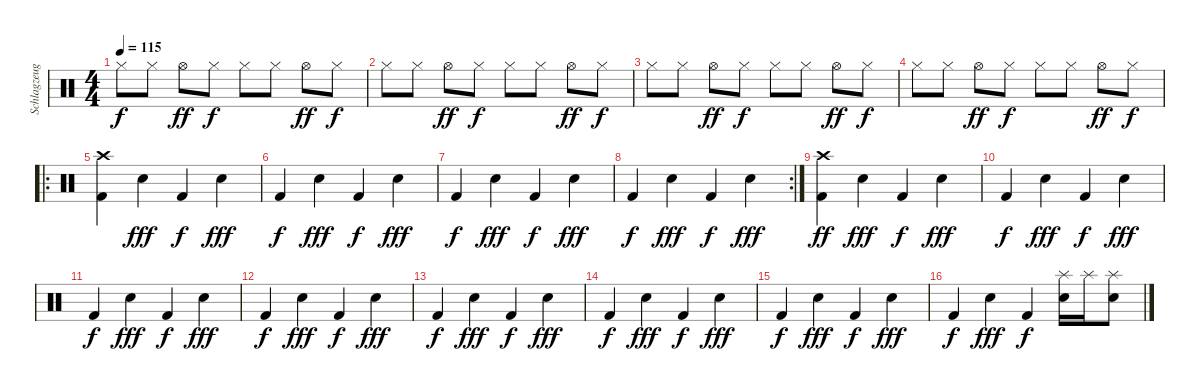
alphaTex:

\track ("Schlagzeug" "Schlagzeug") {instrument percussion}
\staff {score}
\articulation defaults
\ts (4 4)
\tempo 115
\clef neutral
\ks c "Hi-Hat (closed)".8{dy f} "Hi-Hat (closed)".8 "Hi-Hat (open)".8{dy ff} "Hi-Hat (closed)".8{dy f} "Hi-Hat (closed)".8 "Hi-Hat (closed)".8 "Hi-Hat (open)".8{dy ff} "Hi-Hat (closed)".8{dy f}
|
"Hi-Hat (closed)".8 "Hi-Hat (closed)".8 "Hi-Hat (open)".8{dy ff} "Hi-Hat (closed)".8{dy f} "Hi-Hat (closed)".8 "Hi-Hat (closed)".8 "Hi-Hat (open)".8{dy ff} "Hi-Hat (closed)".8{dy f} |
"Hi-Hat (closed)".8 "Hi-Hat (closed)".8 "Hi-Hat (open)".8{dy ff} "Hi-Hat (closed)".8{dy f} "Hi-Hat (closed)".8 "Hi-Hat (closed)".8 "Hi-Hat (open)".8{dy ff} "Hi-Hat (closed)".8{dy f} |
"Hi-Hat (closed)".8 "Hi-Hat (closed)".8 "Hi-Hat (open)".8{dy ff} "Hi-Hat (closed)".8{dy f} "Hi-Hat (closed)".8 "Hi-Hat (closed)".8 "Hi-Hat (open)".8{dy ff} "Hi-Hat (closed)".8{dy f} |
\ro
("Crash high (hit)" "Kick (hit) 2").4 "Electric Snare (hit)".4{dy fff} "Kick (hit) 2".4{dy f} "Electric Snare (hit)".4{dy fff} |
"Kick (hit) 2".4{dy f} "Electric Snare (hit)".4{dy fff} "Kick (hit) 2".4{dy f} "Electric Snare (hit)".4{dy fff} |
"Kick (hit) 2".4{dy f} "Electric Snare (hit)".4{dy fff} "Kick (hit) 2".4{dy f} "Electric Snare (hit)".4{dy fff} |
\rc 2 "Kick (hit) 2".4{dy f} "Electric Snare (hit)".4{dy fff} "Kick (hit) 2".4{dy f} "Electric Snare (hit)".4{dy fff}
|
("Crash high (hit)" "Kick (hit) 2").4{dy ff} "Electric Snare (hit)".4{dy fff} "Kick (hit) 2".4{dy f} "Electric Snare (hit)".4{dy fff} |
"Kick (hit) 2".4{dy f} "Electric Snare (hit)".4{dy fff} "Kick (hit) 2".4{dy f} "Electric Snare (hit)".4{dy fff} |
"Kick (hit) 2".4{dy f} "Electric Snare (hit)".4{dy fff} "Kick (hit) 2".4{dy f} "Electric Snare (hit)".4{dy fff} |
"Kick (hit) 2".4{dy f} "Electric Snare (hit)".4{dy fff} "Kick (hit) 2".4{dy f} "Electric Snare (hit)".4{dy fff} |
"Kick (hit) 2".4{dy f} "Electric Snare (hit)".4{dy fff} "Kick (hit) 2".4{dy f} "Electric Snare (hit)".4{dy fff} |
"Kick (hit) 2".4{dy f} "Electric Snare (hit)".4{dy fff} "Kick (hit) 2".4{dy f} "Electric Snare (hit)".4{dy fff} |
"Kick (hit) 2".4{dy f} "Electric Snare (hit)".4{dy fff} "Kick (hit) 2".4{dy f} "Electric Snare (hit)".4{dy fff} |
"Kick (hit) 2".4{dy f} "Electric Snare (hit)".4{dy fff} "Kick (hit) 2".4{dy f} ("Splash (hit)" "Electric Snare (hit)").16 "Splash (hit)".16 ("Splash (hit)" "Electric Snare (hit)").8
